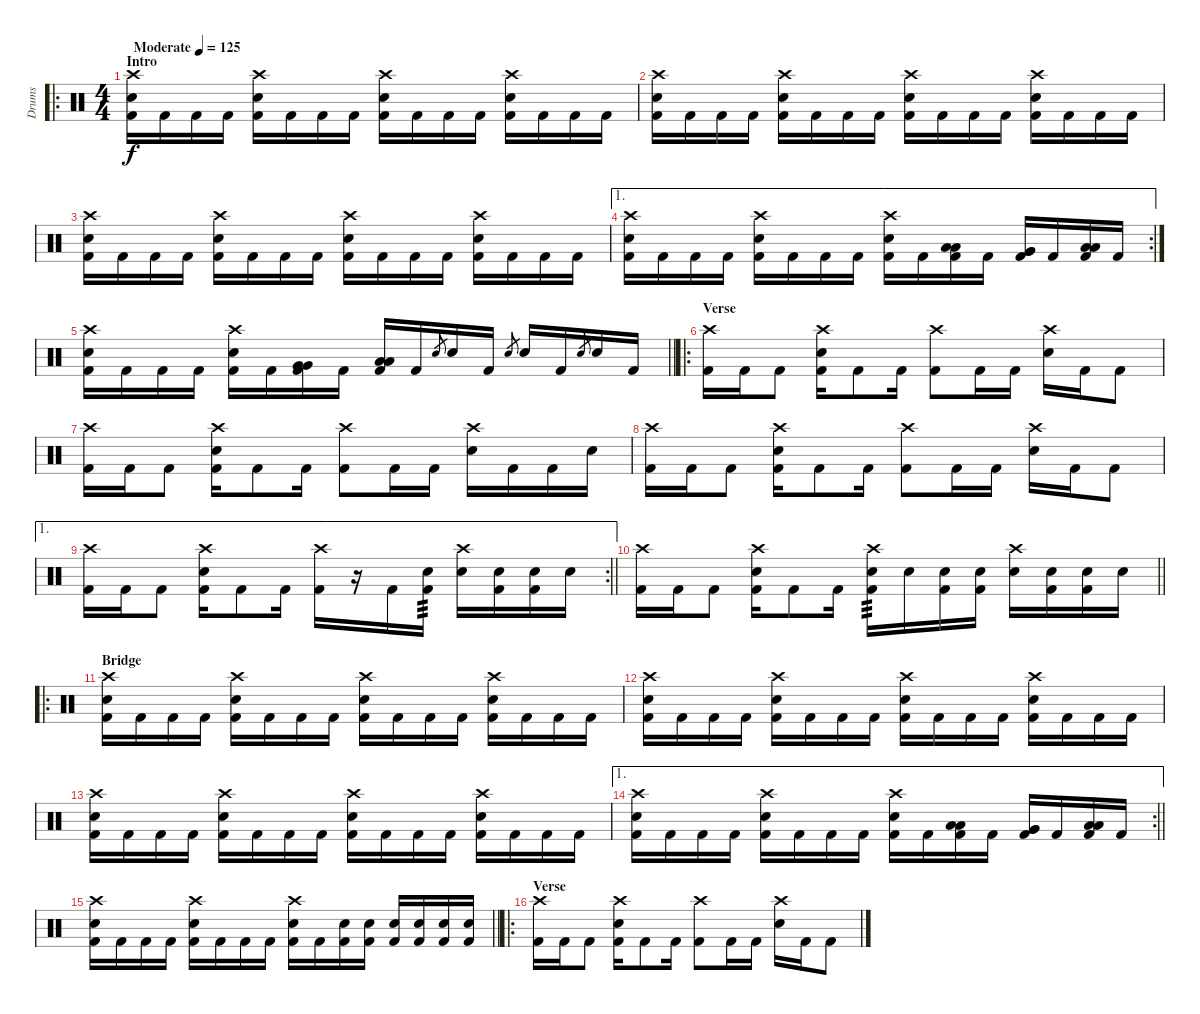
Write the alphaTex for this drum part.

\track ("Drums" "Drums") {instrument percussion}
\staff {score}
\articulation defaults
\ro
\ts (4 4)
\section ("" "Intro")
\tempo (125 "Moderate")
\clef neutral
\ks c
("Crash high (hit)" "Electric Snare (hit)" "Kick (hit) 2").16{dy f} "Kick (hit) 2".16 "Kick (hit) 2".16 "Kick (hit) 2".16 ("Crash high (hit)" "Electric Snare (hit)" "Kick (hit) 2").16 "Kick (hit) 2".16 "Kick (hit) 2".16 "Kick (hit) 2".16 ("Crash high (hit)" "Electric Snare (hit)" "Kick (hit) 2").16 "Kick (hit) 2".16 "Kick (hit) 2".16 "Kick (hit) 2".16 ("Crash high (hit)" "Electric Snare (hit)" "Kick (hit) 2").16 "Kick (hit) 2".16 "Kick (hit) 2".16 "Kick (hit) 2".16 |
("Crash high (hit)" "Electric Snare (hit)" "Kick (hit) 2").16 "Kick (hit) 2".16 "Kick (hit) 2".16 "Kick (hit) 2".16 ("Crash high (hit)" "Electric Snare (hit)" "Kick (hit) 2").16 "Kick (hit) 2".16 "Kick (hit) 2".16 "Kick (hit) 2".16 ("Crash high (hit)" "Electric Snare (hit)" "Kick (hit) 2").16 "Kick (hit) 2".16 "Kick (hit) 2".16 "Kick (hit) 2".16 ("Crash high (hit)" "Electric Snare (hit)" "Kick (hit) 2").16 "Kick (hit) 2".16 "Kick (hit) 2".16 "Kick (hit) 2".16 |
("Crash high (hit)" "Electric Snare (hit)" "Kick (hit) 2").16 "Kick (hit) 2".16 "Kick (hit) 2".16 "Kick (hit) 2".16 ("Crash high (hit)" "Electric Snare (hit)" "Kick (hit) 2").16 "Kick (hit) 2".16 "Kick (hit) 2".16 "Kick (hit) 2".16 ("Crash high (hit)" "Electric Snare (hit)" "Kick (hit) 2").16 "Kick (hit) 2".16 "Kick (hit) 2".16 "Kick (hit) 2".16 ("Crash high (hit)" "Electric Snare (hit)" "Kick (hit) 2").16 "Kick (hit) 2".16 "Kick (hit) 2".16 "Kick (hit) 2".16 |
\ae 1
\rc 2
("Crash high (hit)" "Electric Snare (hit)" "Kick (hit) 2").16 "Kick (hit) 2".16 "Kick (hit) 2".16 "Kick (hit) 2".16 ("Crash high (hit)" "Electric Snare (hit)" "Kick (hit) 2").16 "Kick (hit) 2".16 "Kick (hit) 2".16 "Kick (hit) 2".16 ("Crash high (hit)" "Electric Snare (hit)" "Kick (hit) 2").16 "Kick (hit) 2".16 ("Low Tom (hit)" "Low Tom (hit)" "Kick (hit) 2").16 "Kick (hit) 2".16 ("Very Low Tom (hit)" "Very Low Tom (hit)" "Kick (hit) 2").16 "Kick (hit) 2".16 ("Low Floor Tom (hit)" "Low Floor Tom (hit)" "Kick (hit) 2").16 "Kick (hit) 2".16 |
\barLineRight lightlight
("Crash high (hit)" "Electric Snare (hit)" "Kick (hit) 2").16 "Kick (hit) 2".16 "Kick (hit) 2".16 "Kick (hit) 2".16 ("Crash high (hit)" "Electric Snare (hit)" "Kick (hit) 2").16 "Kick (hit) 2".16 ("Very Low Tom (hit)" "Very Low Tom (hit)" "Kick (hit) 2").16 "Kick (hit) 2".16 ("Low Floor Tom (hit)" "Low Floor Tom (hit)" "Kick (hit) 2").16 "Kick (hit) 2".16 "Electric Snare (hit)".8{gr} "Electric Snare (hit)".16 "Kick (hit) 2".16 "Electric Snare (hit)".8{gr} "Electric Snare (hit)".16 "Kick (hit) 2".16 "Electric Snare (hit)".8{gr} "Electric Snare (hit)".16 "Kick (hit) 2".16 |
\ro
\section ("" "Verse")
("Crash high (hit)" "Kick (hit) 2").16 "Kick (hit) 2".16 "Kick (hit) 2".8 ("Crash high (hit)" "Electric Snare (hit)" "Kick (hit) 2").16 "Kick (hit) 2".8 "Kick (hit) 2".16 ("Crash high (hit)" "Kick (hit) 2").8 "Kick (hit) 2".16 "Kick (hit) 2".16 ("Crash high (hit)" "Electric Snare (hit)").16 "Kick (hit) 2".16 "Kick (hit) 2".8 |
("Crash high (hit)" "Kick (hit) 2").16 "Kick (hit) 2".16 "Kick (hit) 2".8 ("Crash high (hit)" "Electric Snare (hit)" "Kick (hit) 2").16 "Kick (hit) 2".8 "Kick (hit) 2".16 ("Crash high (hit)" "Kick (hit) 2").8 "Kick (hit) 2".16 "Kick (hit) 2".16 ("Crash high (hit)" "Electric Snare (hit)").16 "Kick (hit) 2".16 "Kick (hit) 2".16 "Electric Snare (hit)".16 |
("Crash high (hit)" "Kick (hit) 2").16 "Kick (hit) 2".16 "Kick (hit) 2".8 ("Crash high (hit)" "Electric Snare (hit)" "Kick (hit) 2").16 "Kick (hit) 2".8 "Kick (hit) 2".16 ("Crash high (hit)" "Kick (hit) 2").8 "Kick (hit) 2".16 "Kick (hit) 2".16 ("Crash high (hit)" "Electric Snare (hit)").16 "Kick (hit) 2".16 "Kick (hit) 2".8 |
\ae 1
\rc 2
\barLineRight lightlight
("Crash high (hit)" "Kick (hit) 2").16 "Kick (hit) 2".16 "Kick (hit) 2".8 ("Crash high (hit)" "Electric Snare (hit)" "Kick (hit) 2").16 "Kick (hit) 2".8 "Kick (hit) 2".16 ("Crash high (hit)" "Kick (hit) 2").16 r.16 "Kick (hit) 2".16 ("Electric Snare (hit)" "Kick (hit) 2").16{tp 3} ("Crash high (hit)" "Electric Snare (hit)").16 ("Electric Snare (hit)" "Kick (hit) 2").16 ("Electric Snare (hit)" "Kick (hit) 2").16 "Electric Snare (hit)".16 |
\barLineRight lightlight
("Crash high (hit)" "Kick (hit) 2").16 "Kick (hit) 2".16 "Kick (hit) 2".8 ("Crash high (hit)" "Electric Snare (hit)" "Kick (hit) 2").16 "Kick (hit) 2".8 "Kick (hit) 2".16 ("Crash high (hit)" "Electric Snare (hit)" "Kick (hit) 2").16{tp 3} "Electric Snare (hit)".16 ("Electric Snare (hit)" "Kick (hit) 2").16 ("Electric Snare (hit)" "Kick (hit) 2").16 ("Crash high (hit)" "Electric Snare (hit)").16 ("Electric Snare (hit)" "Kick (hit) 2").16 ("Electric Snare (hit)" "Kick (hit) 2").16 "Electric Snare (hit)".16 |
\ro
\section ("" "Bridge")
("Crash high (hit)" "Electric Snare (hit)" "Kick (hit) 2").16 "Kick (hit) 2".16 "Kick (hit) 2".16 "Kick (hit) 2".16 ("Crash high (hit)" "Electric Snare (hit)" "Kick (hit) 2").16 "Kick (hit) 2".16 "Kick (hit) 2".16 "Kick (hit) 2".16 ("Crash high (hit)" "Electric Snare (hit)" "Kick (hit) 2").16 "Kick (hit) 2".16 "Kick (hit) 2".16 "Kick (hit) 2".16 ("Crash high (hit)" "Electric Snare (hit)" "Kick (hit) 2").16 "Kick (hit) 2".16 "Kick (hit) 2".16 "Kick (hit) 2".16 |
("Crash high (hit)" "Electric Snare (hit)" "Kick (hit) 2").16 "Kick (hit) 2".16 "Kick (hit) 2".16 "Kick (hit) 2".16 ("Crash high (hit)" "Electric Snare (hit)" "Kick (hit) 2").16 "Kick (hit) 2".16 "Kick (hit) 2".16 "Kick (hit) 2".16 ("Crash high (hit)" "Electric Snare (hit)" "Kick (hit) 2").16 "Kick (hit) 2".16 "Kick (hit) 2".16 "Kick (hit) 2".16 ("Crash high (hit)" "Electric Snare (hit)" "Kick (hit) 2").16 "Kick (hit) 2".16 "Kick (hit) 2".16 "Kick (hit) 2".16 |
("Crash high (hit)" "Electric Snare (hit)" "Kick (hit) 2").16 "Kick (hit) 2".16 "Kick (hit) 2".16 "Kick (hit) 2".16 ("Crash high (hit)" "Electric Snare (hit)" "Kick (hit) 2").16 "Kick (hit) 2".16 "Kick (hit) 2".16 "Kick (hit) 2".16 ("Crash high (hit)" "Electric Snare (hit)" "Kick (hit) 2").16 "Kick (hit) 2".16 "Kick (hit) 2".16 "Kick (hit) 2".16 ("Crash high (hit)" "Electric Snare (hit)" "Kick (hit) 2").16 "Kick (hit) 2".16 "Kick (hit) 2".16 "Kick (hit) 2".16 |
\ae 1
\rc 2
\barLineRight lightlight
("Crash high (hit)" "Electric Snare (hit)" "Kick (hit) 2").16 "Kick (hit) 2".16 "Kick (hit) 2".16 "Kick (hit) 2".16 ("Crash high (hit)" "Electric Snare (hit)" "Kick (hit) 2").16 "Kick (hit) 2".16 "Kick (hit) 2".16 "Kick (hit) 2".16 ("Crash high (hit)" "Electric Snare (hit)" "Kick (hit) 2").16 "Kick (hit) 2".16 ("Low Tom (hit)" "Low Tom (hit)" "Kick (hit) 2").16 "Kick (hit) 2".16 ("Very Low Tom (hit)" "Very Low Tom (hit)" "Kick (hit) 2").16 "Kick (hit) 2".16 ("Low Floor Tom (hit)" "Low Floor Tom (hit)" "Kick (hit) 2").16 "Kick (hit) 2".16 |
\barLineRight lightlight
("Crash high (hit)" "Electric Snare (hit)" "Kick (hit) 2").16 "Kick (hit) 2".16 "Kick (hit) 2".16 "Kick (hit) 2".16 ("Crash high (hit)" "Electric Snare (hit)" "Kick (hit) 2").16 "Kick (hit) 2".16 "Kick (hit) 2".16 "Kick (hit) 2".16 ("Crash high (hit)" "Electric Snare (hit)" "Kick (hit) 2").16 "Kick (hit) 2".16 ("Electric Snare (hit)" "Kick (hit) 2").16 ("Electric Snare (hit)" "Kick (hit) 2").16 ("Electric Snare (hit)" "Kick (hit) 2").16 ("Electric Snare (hit)" "Kick (hit) 2").16 ("Electric Snare (hit)" "Kick (hit) 2").16 ("Electric Snare (hit)" "Kick (hit) 2").16 |
\ro
\section ("" "Verse")
("Crash high (hit)" "Kick (hit) 2").16 "Kick (hit) 2".16 "Kick (hit) 2".8 ("Crash high (hit)" "Electric Snare (hit)" "Kick (hit) 2").16 "Kick (hit) 2".8 "Kick (hit) 2".16 ("Crash high (hit)" "Kick (hit) 2").8 "Kick (hit) 2".16 "Kick (hit) 2".16 ("Crash high (hit)" "Electric Snare (hit)").16 "Kick (hit) 2".16 "Kick (hit) 2".8
